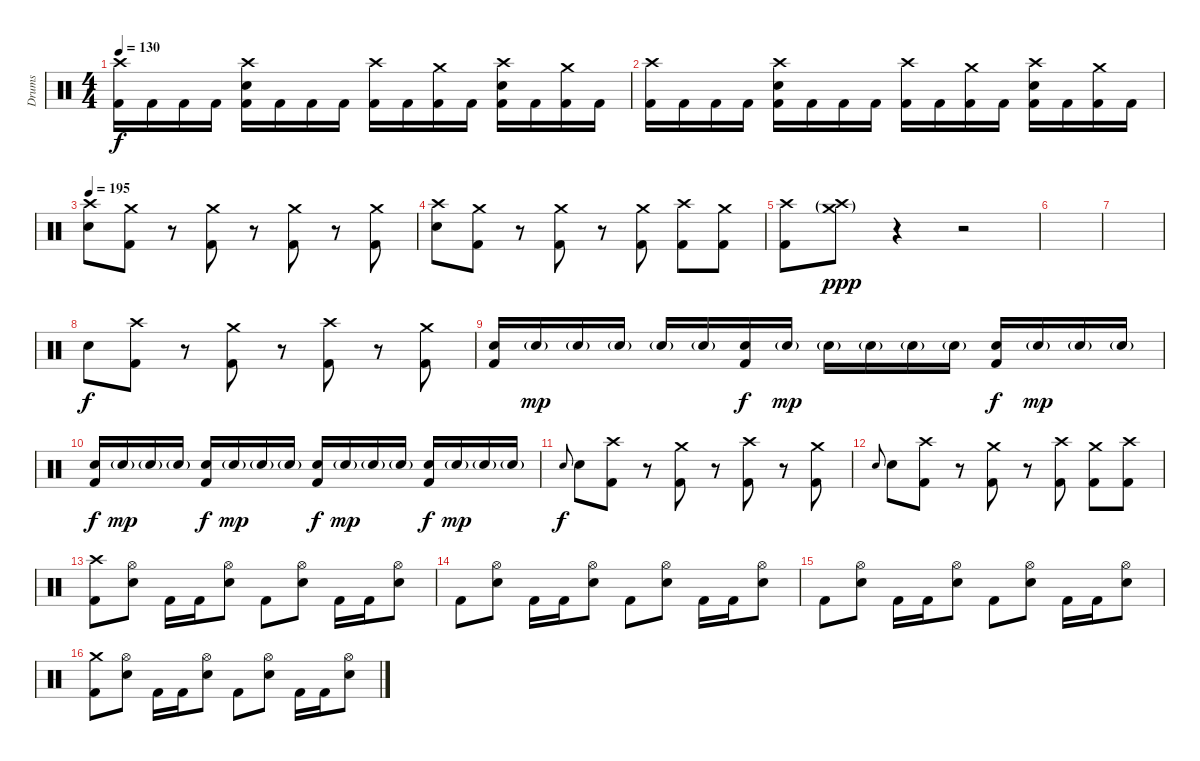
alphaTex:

\track ("Drums" "Drums") {instrument percussion}
\staff {score}
\articulation defaults
\ts (4 4)
\tempo 130
\clef neutral
\ks c
("Crash high (hit)" "Kick (hit) 2").16{dy f} "Kick (hit) 2".16 "Kick (hit) 2".16 "Kick (hit) 2".16 ("Crash high (hit)" "Electric Snare (hit)" "Kick (hit) 2").16 "Kick (hit) 2".16 "Kick (hit) 2".16 "Kick (hit) 2".16 ("Crash high (hit)" "Kick (hit) 2").16 "Kick (hit) 2".16 ("Crash medium (hit)" "Kick (hit) 2").16 "Kick (hit) 2".16 ("Crash high (hit)" "Electric Snare (hit)" "Kick (hit) 2").16 "Kick (hit) 2".16 ("Crash medium (hit)" "Kick (hit) 2").16 "Kick (hit) 2".16 |
("Crash high (hit)" "Kick (hit) 2").16 "Kick (hit) 2".16 "Kick (hit) 2".16 "Kick (hit) 2".16 ("Crash high (hit)" "Electric Snare (hit)" "Kick (hit) 2").16 "Kick (hit) 2".16 "Kick (hit) 2".16 "Kick (hit) 2".16 ("Crash high (hit)" "Kick (hit) 2").16 "Kick (hit) 2".16 ("Crash medium (hit)" "Kick (hit) 2").16 "Kick (hit) 2".16 ("Crash high (hit)" "Electric Snare (hit)" "Kick (hit) 2").16 "Kick (hit) 2".16 ("Crash medium (hit)" "Kick (hit) 2").16 "Kick (hit) 2".16 |
\tempo 195
("Crash high (hit)" "Electric Snare (hit)").8 ("Crash medium (hit)" "Kick (hit) 2").8 r.8 ("Crash medium (hit)" "Kick (hit) 2").8 r.8 ("Crash medium (hit)" "Kick (hit) 2").8 r.8 ("Crash medium (hit)" "Kick (hit) 2").8 |
("Crash high (hit)" "Electric Snare (hit)").8 ("Crash medium (hit)" "Kick (hit) 2").8 r.8 ("Crash medium (hit)" "Kick (hit) 2").8 r.8 ("Crash medium (hit)" "Kick (hit) 2").8 ("Crash high (hit)" "Kick (hit) 2").8 ("Crash medium (hit)" "Kick (hit) 2").8 |
("Crash high (hit)" "Kick (hit) 2").8 ("Crash high (hit)"{g} "Crash medium (hit)"{g}).8{dy ppp} r.4 r.2 |
|
|
"Electric Snare (hit)".8{dy f} ("Crash high (hit)" "Kick (hit) 2").8 r.8 ("Crash medium (hit)" "Kick (hit) 2").8 r.8 ("Crash high (hit)" "Kick (hit) 2").8 r.8 ("Crash medium (hit)" "Kick (hit) 2").8 |
("Electric Snare (hit)" "Kick (hit) 2").16 "Electric Snare (hit)"{g}.16{dy mp} "Electric Snare (hit)"{g}.16 "Electric Snare (hit)"{g}.16 "Electric Snare (hit)"{g}.16 "Electric Snare (hit)"{g}.16 ("Electric Snare (hit)" "Kick (hit) 2").16{dy f} "Electric Snare (hit)"{g}.16{dy mp} "Electric Snare (hit)"{g}.16 "Electric Snare (hit)"{g}.16 "Electric Snare (hit)"{g}.16 "Electric Snare (hit)"{g}.16 ("Electric Snare (hit)" "Kick (hit) 2").16{dy f} "Electric Snare (hit)"{g}.16{dy mp} "Electric Snare (hit)"{g}.16 "Electric Snare (hit)"{g}.16 |
("Electric Snare (hit)" "Kick (hit) 2").16{dy f} "Electric Snare (hit)"{g}.16{dy mp} "Electric Snare (hit)"{g}.16 "Electric Snare (hit)"{g}.16 ("Electric Snare (hit)" "Kick (hit) 2").16{dy f} "Electric Snare (hit)"{g}.16{dy mp} "Electric Snare (hit)"{g}.16 "Electric Snare (hit)"{g}.16 ("Electric Snare (hit)" "Kick (hit) 2").16{dy f} "Electric Snare (hit)"{g}.16{dy mp} "Electric Snare (hit)"{g}.16 "Electric Snare (hit)"{g}.16 ("Electric Snare (hit)" "Kick (hit) 2").16{dy f} "Electric Snare (hit)"{g}.16{dy mp} "Electric Snare (hit)"{g}.16 "Electric Snare (hit)"{g}.16 |
"Electric Snare (hit)".8{gr onbeat dy f} "Electric Snare (hit)".8 ("Crash high (hit)" "Kick (hit) 2").8 r.8 ("Crash medium (hit)" "Kick (hit) 2").8 r.8 ("Crash high (hit)" "Kick (hit) 2").8 r.8 ("Crash medium (hit)" "Kick (hit) 2").8 |
"Electric Snare (hit)".8{gr onbeat} "Electric Snare (hit)".8 ("Crash high (hit)" "Kick (hit) 2").8 r.8 ("Crash medium (hit)" "Kick (hit) 2").8 r.8 ("Crash high (hit)" "Kick (hit) 2").8 ("Crash medium (hit)" "Kick (hit) 2").8 ("Crash high (hit)" "Kick (hit) 2").8 |
("Crash high (hit)" "Kick (hit) 2").8 ("Hi-Hat (open)" "Electric Snare (hit)").8 "Kick (hit) 2".16 "Kick (hit) 2".16 ("Hi-Hat (open)" "Electric Snare (hit)").8 "Kick (hit) 2".8 ("Hi-Hat (open)" "Electric Snare (hit)").8 "Kick (hit) 2".16 "Kick (hit) 2".16 ("Hi-Hat (open)" "Electric Snare (hit)").8 |
"Kick (hit) 2".8 ("Hi-Hat (open)" "Electric Snare (hit)").8 "Kick (hit) 2".16 "Kick (hit) 2".16 ("Hi-Hat (open)" "Electric Snare (hit)").8 "Kick (hit) 2".8 ("Hi-Hat (open)" "Electric Snare (hit)").8 "Kick (hit) 2".16 "Kick (hit) 2".16 ("Hi-Hat (open)" "Electric Snare (hit)").8 |
"Kick (hit) 2".8 ("Hi-Hat (open)" "Electric Snare (hit)").8 "Kick (hit) 2".16 "Kick (hit) 2".16 ("Hi-Hat (open)" "Electric Snare (hit)").8 "Kick (hit) 2".8 ("Hi-Hat (open)" "Electric Snare (hit)").8 "Kick (hit) 2".16 "Kick (hit) 2".16 ("Hi-Hat (open)" "Electric Snare (hit)").8 |
("Crash medium (hit)" "Kick (hit) 2").8 ("Hi-Hat (open)" "Electric Snare (hit)").8 "Kick (hit) 2".16 "Kick (hit) 2".16 ("Hi-Hat (open)" "Electric Snare (hit)").8 "Kick (hit) 2".8 ("Hi-Hat (open)" "Electric Snare (hit)").8 "Kick (hit) 2".16 "Kick (hit) 2".16 ("Hi-Hat (open)" "Electric Snare (hit)").8
